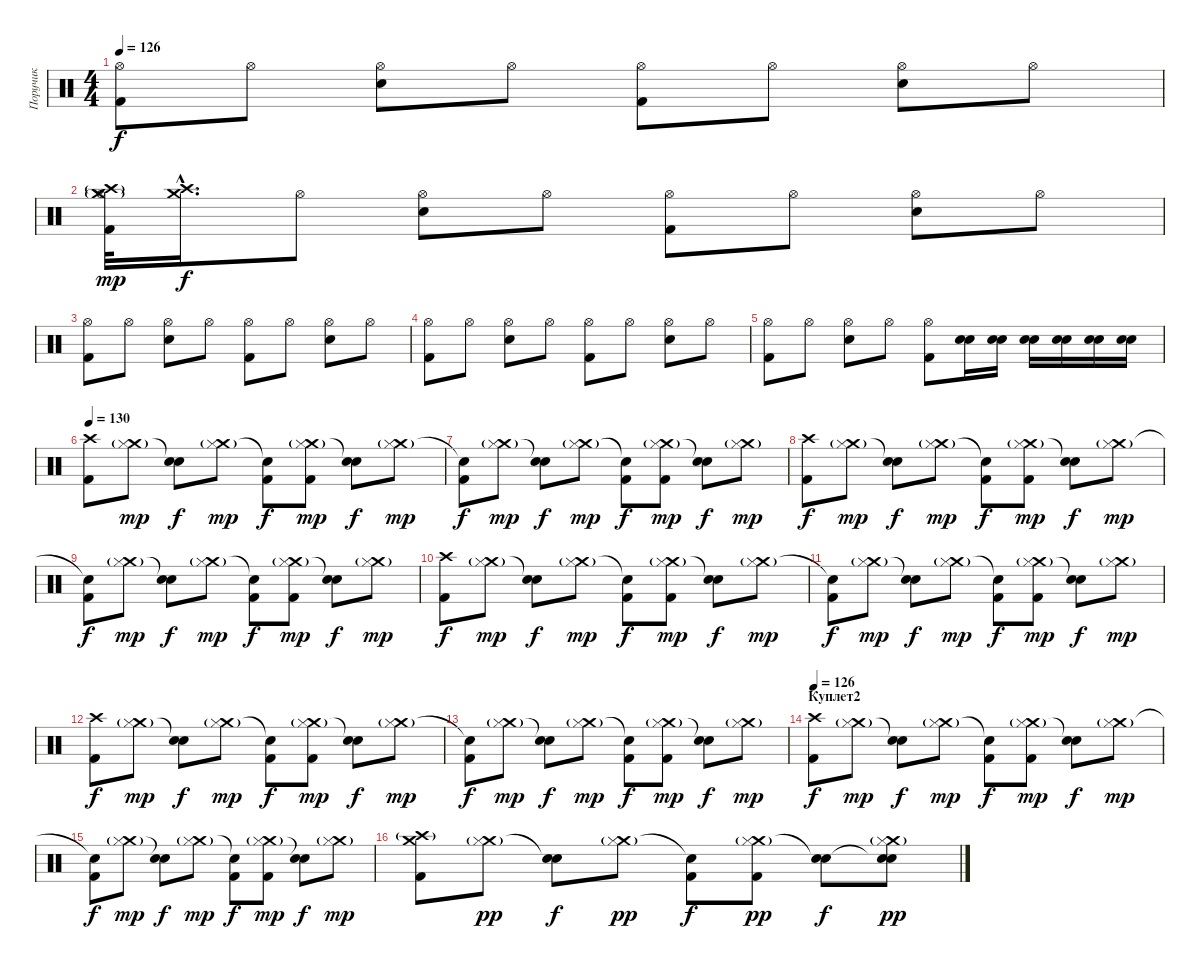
\track ("Поручик" "Поручик") {instrument percussion}
\staff {score}
\articulation defaults
\ts (4 4)
\tempo 126
\clef neutral
\ks c
("Hi-Hat (open)" "Kick (hit) 2").8{dy f} "Hi-Hat (open)".8 ("Hi-Hat (open)" "Snare (hit) 2").8 "Hi-Hat (open)".8 ("Hi-Hat (open)" "Kick (hit) 2").8 "Hi-Hat (open)".8 ("Hi-Hat (open)" "Snare (hit) 2").8 "Hi-Hat (open)".8 |
("Hi-Hat (open)" "Kick (hit) 2" "Crash medium (hit)"{g} "Crash high (hit)"{g}).32{dy mp} ("Crash medium (hit)"{hac} "Crash high (hit)"{hac}).16{d dy f} "Hi-Hat (open)".8 ("Hi-Hat (open)" "Snare (hit) 2").8 "Hi-Hat (open)".8 ("Hi-Hat (open)" "Kick (hit) 2").8 "Hi-Hat (open)".8 ("Hi-Hat (open)" "Snare (hit) 2").8 "Hi-Hat (open)".8 |
("Hi-Hat (open)" "Kick (hit) 2").8 "Hi-Hat (open)".8 ("Hi-Hat (open)" "Snare (hit) 2").8 "Hi-Hat (open)".8 ("Hi-Hat (open)" "Kick (hit) 2").8 "Hi-Hat (open)".8 ("Hi-Hat (open)" "Snare (hit) 2").8 "Hi-Hat (open)".8 |
("Hi-Hat (open)" "Kick (hit) 2").8 "Hi-Hat (open)".8 ("Hi-Hat (open)" "Snare (hit) 2").8 "Hi-Hat (open)".8 ("Hi-Hat (open)" "Kick (hit) 2").8 "Hi-Hat (open)".8 ("Hi-Hat (open)" "Snare (hit) 2").8 "Hi-Hat (open)".8 |
("Hi-Hat (open)" "Kick (hit) 2").8 "Hi-Hat (open)".8 ("Hi-Hat (open)" "Snare (hit) 2").8 "Hi-Hat (open)".8 ("Hi-Hat (open)" "Kick (hit) 2").8 ("Electric Snare (hit)" "Snare (hit) 2").16 ("Electric Snare (hit)" "Snare (hit) 2").16 ("Electric Snare (hit)" "Snare (hit) 2").16 ("Electric Snare (hit)" "Snare (hit) 2").16 ("Electric Snare (hit)" "Snare (hit) 2").16 ("Electric Snare (hit)" "Snare (hit) 2").16 |
\tempo 130
("Kick (hit) 2" "Crash high (hit)").8 ("Crash medium (hit)"{g} "Hi-Hat (closed)").8{dy mp} ("Snare (hit) 2" "Snare (hit)"{t}).8{dy f} ("Crash medium (hit)"{g} "Hi-Hat (closed)").8{dy mp} ("Kick (hit) 2" "Snare (hit)"{t}).8{dy f} ("Kick (hit) 2" "Crash medium (hit)"{g} "Hi-Hat (closed)").8{dy mp} ("Snare (hit) 2" "Snare (hit)"{t}).8{dy f} ("Crash medium (hit)"{g} "Hi-Hat (closed)").8{dy mp} |
("Kick (hit) 2" "Snare (hit)"{t}).8{dy f} ("Crash medium (hit)"{g} "Hi-Hat (closed)").8{dy mp} ("Snare (hit) 2" "Snare (hit)"{t}).8{dy f} ("Crash medium (hit)"{g} "Hi-Hat (closed)").8{dy mp} ("Kick (hit) 2" "Snare (hit)"{t}).8{dy f} ("Kick (hit) 2" "Crash medium (hit)"{g} "Hi-Hat (closed)").8{dy mp} ("Snare (hit) 2" "Snare (hit)"{t}).8{dy f} ("Crash medium (hit)"{g} "Hi-Hat (closed)").8{dy mp} |
("Kick (hit) 2" "Crash high (hit)").8{dy f} ("Crash medium (hit)"{g} "Hi-Hat (closed)").8{dy mp} ("Snare (hit) 2" "Snare (hit)"{t}).8{dy f} ("Crash medium (hit)"{g} "Hi-Hat (closed)").8{dy mp} ("Kick (hit) 2" "Snare (hit)"{t}).8{dy f} ("Kick (hit) 2" "Crash medium (hit)"{g} "Hi-Hat (closed)").8{dy mp} ("Snare (hit) 2" "Snare (hit)"{t}).8{dy f} ("Crash medium (hit)"{g} "Hi-Hat (closed)").8{dy mp} |
("Kick (hit) 2" "Snare (hit)"{t}).8{dy f} ("Crash medium (hit)"{g} "Hi-Hat (closed)").8{dy mp} ("Snare (hit) 2" "Snare (hit)"{t}).8{dy f} ("Crash medium (hit)"{g} "Hi-Hat (closed)").8{dy mp} ("Kick (hit) 2" "Snare (hit)"{t}).8{dy f} ("Kick (hit) 2" "Crash medium (hit)"{g} "Hi-Hat (closed)").8{dy mp} ("Snare (hit) 2" "Snare (hit)"{t}).8{dy f} ("Crash medium (hit)"{g} "Hi-Hat (closed)").8{dy mp} |
("Kick (hit) 2" "Crash high (hit)").8{dy f} ("Crash medium (hit)"{g} "Hi-Hat (closed)").8{dy mp} ("Snare (hit) 2" "Snare (hit)"{t}).8{dy f} ("Crash medium (hit)"{g} "Hi-Hat (closed)").8{dy mp} ("Kick (hit) 2" "Snare (hit)"{t}).8{dy f} ("Kick (hit) 2" "Crash medium (hit)"{g} "Hi-Hat (closed)").8{dy mp} ("Snare (hit) 2" "Snare (hit)"{t}).8{dy f} ("Crash medium (hit)"{g} "Hi-Hat (closed)").8{dy mp} |
("Kick (hit) 2" "Snare (hit)"{t}).8{dy f} ("Crash medium (hit)"{g} "Hi-Hat (closed)").8{dy mp} ("Snare (hit) 2" "Snare (hit)"{t}).8{dy f} ("Crash medium (hit)"{g} "Hi-Hat (closed)").8{dy mp} ("Kick (hit) 2" "Snare (hit)"{t}).8{dy f} ("Kick (hit) 2" "Crash medium (hit)"{g} "Hi-Hat (closed)").8{dy mp} ("Snare (hit) 2" "Snare (hit)"{t}).8{dy f} ("Crash medium (hit)"{g} "Hi-Hat (closed)").8{dy mp} |
("Kick (hit) 2" "Crash high (hit)").8{dy f} ("Crash medium (hit)"{g} "Hi-Hat (closed)").8{dy mp} ("Snare (hit) 2" "Snare (hit)"{t}).8{dy f} ("Crash medium (hit)"{g} "Hi-Hat (closed)").8{dy mp} ("Kick (hit) 2" "Snare (hit)"{t}).8{dy f} ("Kick (hit) 2" "Crash medium (hit)"{g} "Hi-Hat (closed)").8{dy mp} ("Snare (hit) 2" "Snare (hit)"{t}).8{dy f} ("Crash medium (hit)"{g} "Hi-Hat (closed)").8{dy mp} |
("Kick (hit) 2" "Snare (hit)"{t}).8{dy f} ("Crash medium (hit)"{g} "Hi-Hat (closed)").8{dy mp} ("Snare (hit) 2" "Snare (hit)"{t}).8{dy f} ("Crash medium (hit)"{g} "Hi-Hat (closed)").8{dy mp} ("Kick (hit) 2" "Snare (hit)"{t}).8{dy f} ("Kick (hit) 2" "Crash medium (hit)"{g} "Hi-Hat (closed)").8{dy mp} ("Snare (hit) 2" "Snare (hit)"{t}).8{dy f} ("Crash medium (hit)"{g} "Hi-Hat (closed)").8{dy mp} |
\section ("" "Куплет2")
\tempo 126
("Kick (hit) 2" "Crash high (hit)").8{dy f} ("Crash medium (hit)"{g} "Hi-Hat (closed)").8{dy mp} ("Snare (hit) 2" "Snare (hit)"{t}).8{dy f} ("Crash medium (hit)"{g} "Hi-Hat (closed)").8{dy mp} ("Kick (hit) 2" "Snare (hit)"{t}).8{dy f} ("Kick (hit) 2" "Crash medium (hit)"{g} "Hi-Hat (closed)").8{dy mp} ("Snare (hit) 2" "Snare (hit)"{t}).8{dy f} ("Crash medium (hit)"{g} "Hi-Hat (closed)").8{dy mp} |
("Kick (hit) 2" "Snare (hit)"{t}).8{dy f} ("Crash medium (hit)"{g} "Hi-Hat (closed)").8{dy mp} ("Snare (hit) 2" "Snare (hit)"{t}).8{dy f} ("Crash medium (hit)"{g} "Hi-Hat (closed)").8{dy mp} ("Kick (hit) 2" "Snare (hit)"{t}).8{dy f} ("Kick (hit) 2" "Crash medium (hit)"{g} "Hi-Hat (closed)").8{dy mp} ("Snare (hit) 2" "Snare (hit)"{t}).8{dy f} ("Crash medium (hit)"{g} "Hi-Hat (closed)").8{dy mp} |
("Kick (hit) 2" "Crash medium (hit)" "Crash high (hit)"{g}).8 ("Crash medium (hit)"{g} "Hi-Hat (closed)").8{dy pp} ("Snare (hit) 2" "Snare (hit)"{t}).8{dy f} ("Crash medium (hit)"{g} "Hi-Hat (closed)").8{dy pp} ("Kick (hit) 2" "Snare (hit)"{t}).8{dy f} ("Kick (hit) 2" "Crash medium (hit)"{g} "Hi-Hat (closed)").8{dy pp} ("Snare (hit) 2" "Snare (hit)"{t}).8{dy f} ("Crash medium (hit)"{g} "Snare (hit)"{t} "Hi-Hat (closed)" "Snare (hit)").8{dy pp}
